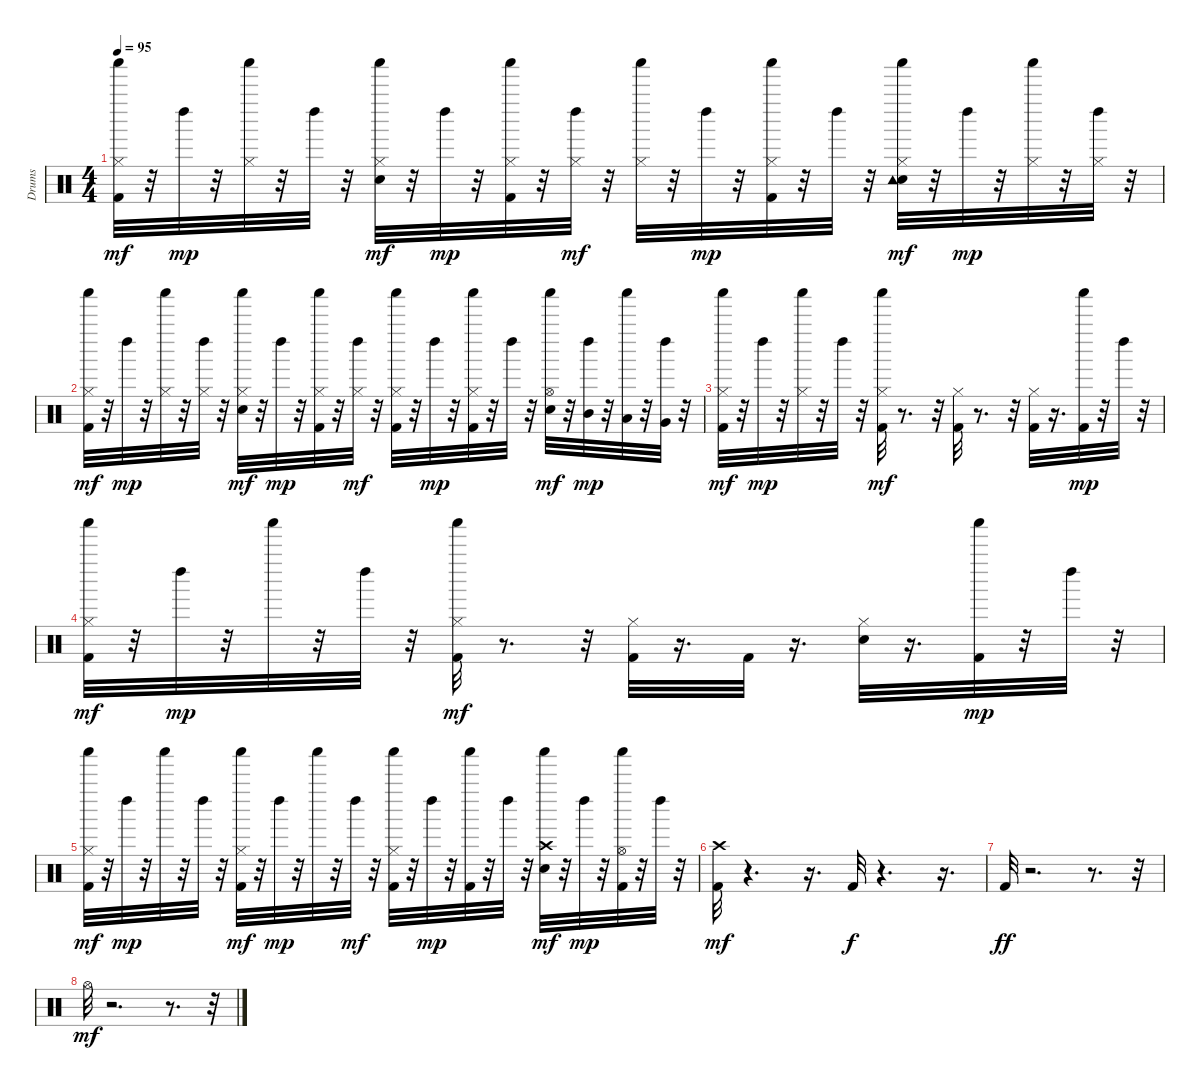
\track ("Drums" "Drums") {instrument percussion}
\staff {score}
\articulation defaults
\ts (4 4)
\tempo 95
\clef neutral
\ks c
("Kick (hit) 2" "Hi-Hat (closed)" "Shaker (hit)").32{dy mf} r.32 "Left Maraca (hit)".32{dy mp} r.32 ("Hi-Hat (closed)" "Shaker (hit)").32 r.32 "Left Maraca (hit)".32 r.32 ("Electric Snare (hit)" "Hi-Hat (closed)" "Shaker (hit)").32{dy mf} r.32 "Left Maraca (hit)".32{dy mp} r.32 ("Kick (hit) 2" "Hi-Hat (closed)" "Shaker (hit)").32 r.32 ("Hi-Hat (closed)" "Left Maraca (hit)").32{dy mf} r.32 ("Hi-Hat (closed)" "Shaker (hit)").32 r.32 "Left Maraca (hit)".32{dy mp} r.32 ("Kick (hit) 2" "Hi-Hat (closed)" "Shaker (hit)").32 r.32 "Left Maraca (hit)".32 r.32 ("Electric Snare (hit)" "Hi-Hat (closed)" "Tambourine (hit)" "Shaker (hit)").32{dy mf} r.32 "Left Maraca (hit)".32{dy mp} r.32 ("Hi-Hat (closed)" "Shaker (hit)").32 r.32 ("Hi-Hat (closed)" "Left Maraca (hit)").32 r.32 |
("Kick (hit) 2" "Hi-Hat (closed)" "Shaker (hit)").32{dy mf} r.32 "Left Maraca (hit)".32{dy mp} r.32 ("Hi-Hat (closed)" "Shaker (hit)").32 r.32 ("Hi-Hat (closed)" "Left Maraca (hit)").32 r.32 ("Electric Snare (hit)" "Hi-Hat (closed)" "Shaker (hit)").32{dy mf} r.32 "Left Maraca (hit)".32{dy mp} r.32 ("Kick (hit) 2" "Hi-Hat (closed)" "Shaker (hit)").32 r.32 ("Hi-Hat (closed)" "Left Maraca (hit)").32{dy mf} r.32 ("Kick (hit) 2" "Hi-Hat (closed)" "Shaker (hit)").32 r.32 "Left Maraca (hit)".32{dy mp} r.32 ("Kick (hit) 2" "Hi-Hat (closed)" "Shaker (hit)").32 r.32 "Left Maraca (hit)".32 r.32 ("Electric Snare (hit)" "Hi-Hat (open)" "Shaker (hit)").32{dy mf} r.32 ("Mid Tom (hit)" "Left Maraca (hit)").32{dy mp} r.32 ("Low Tom (hit)" "Shaker (hit)").32 r.32 ("Very Low Tom (hit)" "Left Maraca (hit)").32 r.32 |
("Kick (hit) 2" "Hi-Hat (closed)" "Shaker (hit)").32{dy mf} r.32 "Left Maraca (hit)".32{dy mp} r.32 ("Hi-Hat (closed)" "Shaker (hit)").32 r.32 "Left Maraca (hit)".32 r.32 ("Kick (hit) 2" "Hi-Hat (closed)" "Shaker (hit)").32{dy mf} r.8{d} r.32 ("Kick (hit) 2" "Hi-Hat (closed)").32 r.8{d} r.32 ("Kick (hit) 2" "Hi-Hat (closed)").32 r.16{d} ("Kick (hit) 2" "Shaker (hit)").32{dy mp} r.32 "Left Maraca (hit)".32 r.32 |
("Kick (hit) 2" "Hi-Hat (closed)" "Shaker (hit)").32{dy mf} r.32 "Left Maraca (hit)".32{dy mp} r.32 "Shaker (hit)".32 r.32 "Left Maraca (hit)".32 r.32 ("Kick (hit) 2" "Hi-Hat (closed)" "Shaker (hit)").32{dy mf} r.8{d} r.32 ("Kick (hit) 2" "Hi-Hat (closed)").32 r.16{d} "Kick (hit) 2".32 r.16{d} ("Electric Snare (hit)" "Hi-Hat (closed)").32 r.16{d} ("Kick (hit) 2" "Shaker (hit)").32{dy mp} r.32 "Left Maraca (hit)".32 r.32 |
("Kick (hit) 2" "Hi-Hat (closed)" "Shaker (hit)").32{dy mf} r.32 "Left Maraca (hit)".32{dy mp} r.32 "Shaker (hit)".32 r.32 "Left Maraca (hit)".32 r.32 ("Kick (hit) 2" "Hi-Hat (closed)" "Shaker (hit)").32{dy mf} r.32 "Left Maraca (hit)".32{dy mp} r.32 "Shaker (hit)".32 r.32 "Left Maraca (hit)".32{dy mf} r.32 ("Kick (hit) 2" "Hi-Hat (closed)" "Shaker (hit)").32 r.32 "Left Maraca (hit)".32{dy mp} r.32 ("Kick (hit) 2" "Shaker (hit)").32 r.32 "Left Maraca (hit)".32 r.32 ("Electric Snare (hit)" "Crash high (hit)" "Shaker (hit)").32{dy mf} r.32 "Left Maraca (hit)".32{dy mp} r.32 ("Kick (hit) 2" "Hi-Hat (open)" "Shaker (hit)").32 r.32 "Left Maraca (hit)".32 r.32 |
("Kick (hit) 2" "Crash high (hit)").32{dy mf} r.4{d} r.16{d} "Kick (hit) 2".32{dy f} r.4{d} r.16{d} |
"Kick (hit) 2".32{dy ff} r.2{d} r.8{d} r.32 |
"Hi-Hat (open)".32{dy mf} r.2{d} r.8{d} r.32
